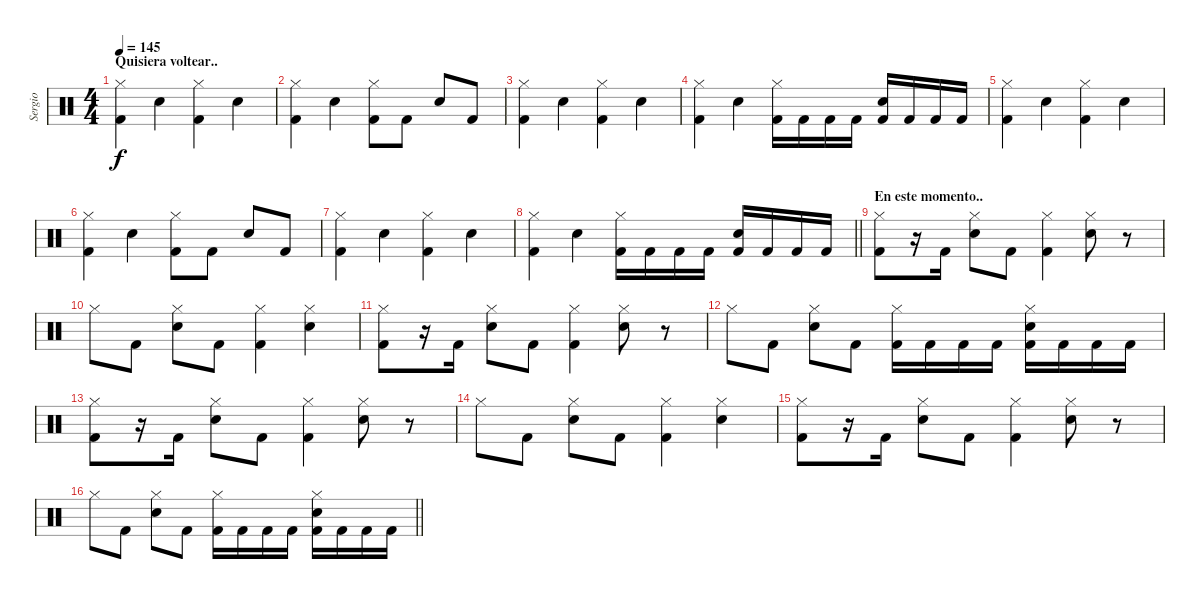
\track ("Sergio" "Sergio") {instrument percussion}
\staff {score}
\articulation defaults
\ts (4 4)
\section ("" "Quisiera voltear..")
\tempo 145
\clef neutral
\ks c
("Hi-Hat (closed)" "Kick (hit) 2").4{dy f} "Electric Snare (hit)".4 ("Hi-Hat (closed)" "Kick (hit) 2").4 "Electric Snare (hit)".4 |
("Hi-Hat (closed)" "Kick (hit) 2").4 "Electric Snare (hit)".4 ("Hi-Hat (closed)" "Kick (hit) 2").8 "Kick (hit) 2".8 "Electric Snare (hit)".8 "Kick (hit) 2".8 |
("Hi-Hat (closed)" "Kick (hit) 2").4 "Electric Snare (hit)".4 ("Hi-Hat (closed)" "Kick (hit) 2").4 "Electric Snare (hit)".4 |
("Hi-Hat (closed)" "Kick (hit) 2").4 "Electric Snare (hit)".4 ("Hi-Hat (closed)" "Kick (hit) 2").16 "Kick (hit) 2".16 "Kick (hit) 2".16 "Kick (hit) 2".16 ("Electric Snare (hit)" "Kick (hit) 2").16 "Kick (hit) 2".16 "Kick (hit) 2".16 "Kick (hit) 2".16 |
("Hi-Hat (closed)" "Kick (hit) 2").4 "Electric Snare (hit)".4 ("Hi-Hat (closed)" "Kick (hit) 2").4 "Electric Snare (hit)".4 |
("Hi-Hat (closed)" "Kick (hit) 2").4 "Electric Snare (hit)".4 ("Hi-Hat (closed)" "Kick (hit) 2").8 "Kick (hit) 2".8 "Electric Snare (hit)".8 "Kick (hit) 2".8 |
("Hi-Hat (closed)" "Kick (hit) 2").4 "Electric Snare (hit)".4 ("Hi-Hat (closed)" "Kick (hit) 2").4 "Electric Snare (hit)".4 |
\barLineRight lightlight
("Hi-Hat (closed)" "Kick (hit) 2").4 "Electric Snare (hit)".4 ("Hi-Hat (closed)" "Kick (hit) 2").16 "Kick (hit) 2".16 "Kick (hit) 2".16 "Kick (hit) 2".16 ("Electric Snare (hit)" "Kick (hit) 2").16 "Kick (hit) 2".16 "Kick (hit) 2".16 "Kick (hit) 2".16 |
\section ("" "En este momento..")
("Hi-Hat (closed)" "Kick (hit) 2").8 r.16 "Kick (hit) 2".16 ("Hi-Hat (closed)" "Electric Snare (hit)").8 "Kick (hit) 2".8 ("Hi-Hat (closed)" "Kick (hit) 2").4 ("Hi-Hat (closed)" "Electric Snare (hit)").8 r.8 |
"Hi-Hat (closed)".8 "Kick (hit) 2".8 ("Hi-Hat (closed)" "Electric Snare (hit)").8 "Kick (hit) 2".8 ("Hi-Hat (closed)" "Kick (hit) 2").4 ("Hi-Hat (closed)" "Electric Snare (hit)").4 |
("Hi-Hat (closed)" "Kick (hit) 2").8 r.16 "Kick (hit) 2".16 ("Hi-Hat (closed)" "Electric Snare (hit)").8 "Kick (hit) 2".8 ("Hi-Hat (closed)" "Kick (hit) 2").4 ("Hi-Hat (closed)" "Electric Snare (hit)").8 r.8 |
"Hi-Hat (closed)".8 "Kick (hit) 2".8 ("Hi-Hat (closed)" "Electric Snare (hit)").8 "Kick (hit) 2".8 ("Hi-Hat (closed)" "Kick (hit) 2").16 "Kick (hit) 2".16 "Kick (hit) 2".16 "Kick (hit) 2".16 ("Hi-Hat (closed)" "Electric Snare (hit)" "Kick (hit) 2").16 "Kick (hit) 2".16 "Kick (hit) 2".16 "Kick (hit) 2".16 |
("Hi-Hat (closed)" "Kick (hit) 2").8 r.16 "Kick (hit) 2".16 ("Hi-Hat (closed)" "Electric Snare (hit)").8 "Kick (hit) 2".8 ("Hi-Hat (closed)" "Kick (hit) 2").4 ("Hi-Hat (closed)" "Electric Snare (hit)").8 r.8 |
"Hi-Hat (closed)".8 "Kick (hit) 2".8 ("Hi-Hat (closed)" "Electric Snare (hit)").8 "Kick (hit) 2".8 ("Hi-Hat (closed)" "Kick (hit) 2").4 ("Hi-Hat (closed)" "Electric Snare (hit)").4 |
("Hi-Hat (closed)" "Kick (hit) 2").8 r.16 "Kick (hit) 2".16 ("Hi-Hat (closed)" "Electric Snare (hit)").8 "Kick (hit) 2".8 ("Hi-Hat (closed)" "Kick (hit) 2").4 ("Hi-Hat (closed)" "Electric Snare (hit)").8 r.8 |
\barLineRight lightlight "Hi-Hat (closed)".8 "Kick (hit) 2".8
("Hi-Hat (closed)" "Electric Snare (hit)").8 "Kick (hit) 2".8 ("Hi-Hat (closed)" "Kick (hit) 2").16 "Kick (hit) 2".16 "Kick (hit) 2".16 "Kick (hit) 2".16 ("Hi-Hat (closed)" "Electric Snare (hit)" "Kick (hit) 2").16 "Kick (hit) 2".16 "Kick (hit) 2".16 "Kick (hit) 2".16
